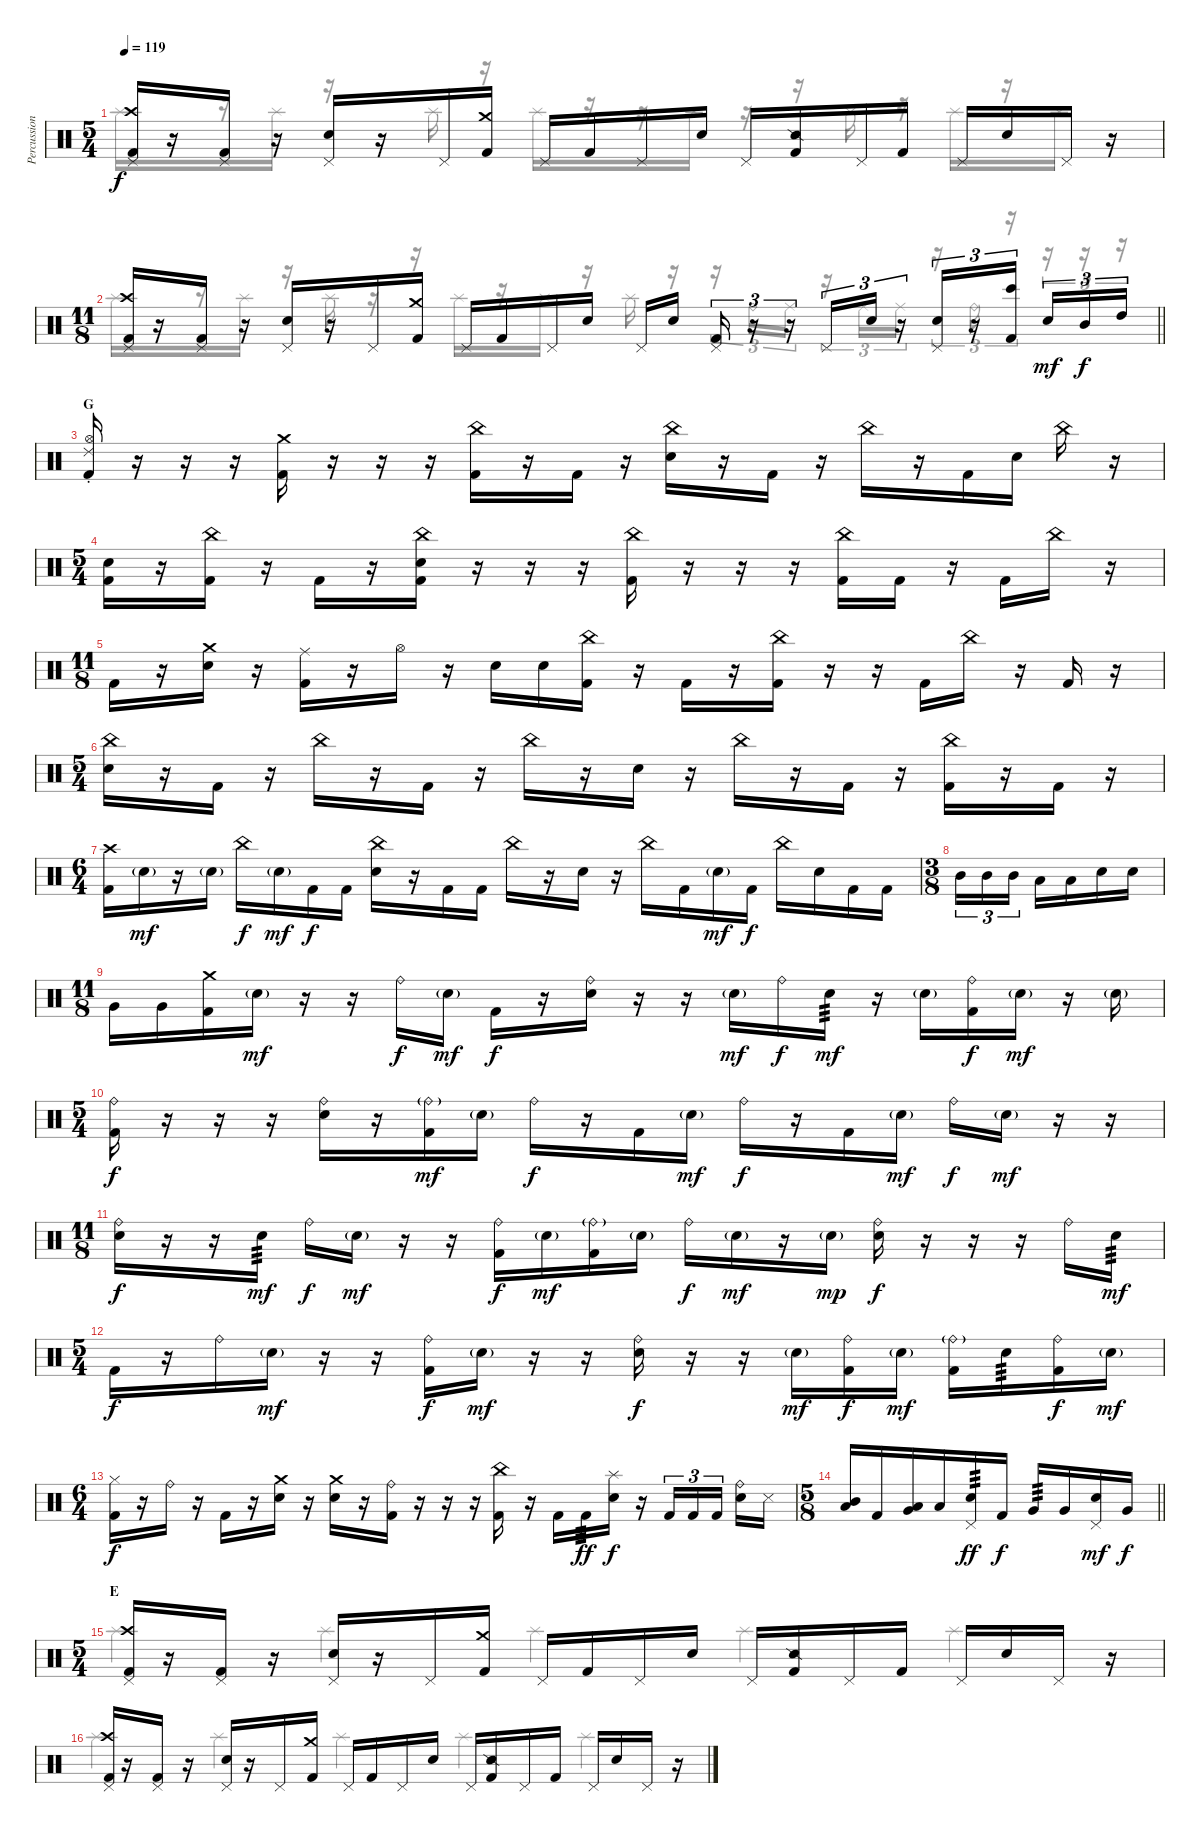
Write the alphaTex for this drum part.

\track ("Percussion" "Percussion") {instrument percussion}
\staff {score}
\articulation defaults
\voice
\ts (5 4)
\tempo 119
\clef neutral
\ks c
("Crash high (hit)" "Pedal Hi-Hat (hit)" "Kick (hit) 2").16{dy f} r.16 ("Pedal Hi-Hat (hit)" "Kick (hit) 2").16 r.16 ("Pedal Hi-Hat (hit)" "Snare (hit) 2").16 r.16 "Pedal Hi-Hat (hit)".16 ("Crash medium (hit)" "Kick (hit) 2").16 "Pedal Hi-Hat (hit)".16 "Kick (hit) 2".16 "Pedal Hi-Hat (hit)".16 "Snare (hit) 2".16 "Pedal Hi-Hat (hit)".16 ("Snare (side stick) 2" "Kick (hit) 2").16 "Pedal Hi-Hat (hit)".16 "Kick (hit) 2".16 "Pedal Hi-Hat (hit)".16 "Snare (hit) 2".16 "Pedal Hi-Hat (hit)".16 r.16 |
\ts (11 8)
\barLineRight lightlight
("Crash high (hit)" "Pedal Hi-Hat (hit)" "Kick (hit) 2").16 r.16 ("Pedal Hi-Hat (hit)" "Kick (hit) 2").16 r.16 ("Pedal Hi-Hat (hit)" "Snare (hit) 2").16 r.16 "Pedal Hi-Hat (hit)".16 ("Crash medium (hit)" "Kick (hit) 2").16 "Pedal Hi-Hat (hit)".16 "Kick (hit) 2".16 "Pedal Hi-Hat (hit)".16 "Snare (hit) 2".16 "Pedal Hi-Hat (hit)".16 "Snare (hit)".16 ("Pedal Hi-Hat (hit)" "Kick (hit) 2").16{tu (3 2)} r.16{tu (3 2)} r.16{tu (3 2)} "Pedal Hi-Hat (hit)".16{tu (3 2)} "Snare (hit) 2".16{tu (3 2)} r.16{tu (3 2)} ("Pedal Hi-Hat (hit)" "Snare (hit) 2").16{tu (3 2)} r.16{tu (3 2)} ("Bongo High (hit)" "Kick (hit) 2").16{tu (3 2)} "Snare (hit) 2".16{tu (3 2) dy mf} "Mid Tom (hit)".16{tu (3 2) dy f} "High Tom (hit)".16{tu (3 2)} |
\section ("" "G")
("Hi-Hat (open)" "Ride (choke) 2" "Kick (hit) 2").16 r.16 r.16 r.16 ("Crash medium (hit)" "Kick (hit) 2").16 r.16 r.16 r.16 ("China (hit)" "Kick (hit) 2").16 r.16 "Kick (hit) 2".16 r.16 ("China (hit)" "Snare (hit) 2").16 r.16 "Kick (hit) 2".16 r.16 "China (hit)".16 r.16 "Kick (hit) 2".16 "Snare (hit) 2".16 "China (hit)".16 r.16 |
\ts (5 4)
("Snare (hit) 2" "Kick (hit) 2").16 r.16 ("China (hit)" "Kick (hit) 2").16 r.16 "Kick (hit) 2".16 r.16 ("China (hit)" "Snare (hit) 2" "Kick (hit) 2").16 r.16 r.16 r.16 ("China (hit)" "Kick (hit) 2").16 r.16 r.16 r.16 ("China (hit)" "Kick (hit) 2").16 "Kick (hit) 2".16 r.16 "Kick (hit) 2".16 "China (hit)".16 r.16 |
\ts (11 8)
"Kick (hit) 2".16 r.16 ("Crash medium (hit)" "Snare (hit) 2").16 r.16 ("Ride (middle)" "Kick (hit) 2").16 r.16 "Hi-Hat (open)".16 r.16 "Snare (hit) 2".16 "Snare (hit) 2".16 ("China (hit)" "Kick (hit) 2").16 r.16 "Kick (hit) 2".16 r.16 ("China (hit)" "Kick (hit) 2").16 r.16 r.16 "Kick (hit) 2".16 "China (hit)".16 r.16 "Kick (hit) 2".16 r.16 |
\ts (5 4)
("China (hit)" "Snare (hit) 2").16 r.16 "Kick (hit) 2".16 r.16 "China (hit)".16 r.16 "Kick (hit) 2".16 r.16 "China (hit)".16 r.16 "Snare (hit) 2".16 r.16 "China (hit)".16 r.16 "Kick (hit) 2".16 r.16 ("China (hit)" "Kick (hit) 2").16 r.16 "Kick (hit) 2".16 r.16 |
\ts (6 4)
("Crash high (hit)" "Kick (hit) 2").16 "Snare (hit) 2"{g}.16{dy mf} r.16 "Snare (hit) 2"{g}.16 "China (hit)".16{dy f} "Snare (hit) 2"{g}.16{dy mf} "Kick (hit) 2".16{dy f} "Kick (hit) 2".16 ("China (hit)" "Snare (hit) 2").16 r.16 "Kick (hit) 2".16 "Kick (hit) 2".16 "China (hit)".16 r.16 "Snare (hit) 2".16 r.16 "China (hit)".16 "Kick (hit) 2".16 "Snare (hit) 2"{g}.16{dy mf} "Kick (hit) 2".16{dy f} "China (hit)".16 "Snare (hit) 2".16 "Kick (hit) 2".16 "Kick (hit) 2".16 |
\ts (3 8)
"Mid Tom (hit)".16{tu (3 2)} "Mid Tom (hit)".16{tu (3 2)} "Mid Tom (hit)".16{tu (3 2)} "Low Tom (hit)".16 "Low Tom (hit)".16 "Snare (hit) 2".16 "Snare (hit) 2".16 |
\ts (11 8)
"Very Low Tom (hit)".16 "Very Low Tom (hit)".16 ("Crash medium (hit)" "Kick (hit) 2").16 "Snare (hit) 2"{g}.16{dy mf} r.16 r.16 "Ride (bell)".16{dy f} "Snare (hit) 2"{g}.16{dy mf} "Kick (hit) 2".16{dy f} r.16 ("Ride (bell)" "Snare (hit) 2").16 r.16 r.16 "Snare (hit) 2"{g}.16{dy mf} "Ride (bell)".16{dy f} "Snare (hit) 2".16{tp 3 dy mf} r.16 "Snare (hit) 2"{g}.16 ("Ride (bell)" "Kick (hit) 2").16{dy f} "Snare (hit) 2"{g}.16{dy mf} r.16 "Snare (hit) 2"{g}.16 |
\ts (5 4)
("Ride (bell)" "Kick (hit) 2").16{dy f} r.16 r.16 r.16 ("Ride (bell)" "Snare (hit) 2").16 r.16 ("Ride (bell)"{g} "Kick (hit) 2").16{dy mf} "Snare (hit) 2"{g}.16 "Ride (bell)".16{dy f} r.16 "Kick (hit) 2".16 "Snare (hit) 2"{g}.16{dy mf} "Ride (bell)".16{dy f} r.16 "Kick (hit) 2".16 "Snare (hit) 2"{g}.16{dy mf} "Ride (bell)".16{dy f} "Snare (hit) 2"{g}.16{dy mf} r.16 r.16 |
\ts (11 8)
("Ride (bell)" "Snare (hit) 2").16{dy f} r.16 r.16 "Snare (hit) 2".16{tp 3 dy mf} "Ride (bell)".16{dy f} "Snare (hit) 2"{g}.16{dy mf} r.16 r.16 ("Ride (bell)" "Kick (hit) 2").16{dy f} "Snare (hit) 2"{g}.16{dy mf} ("Ride (bell)"{g} "Kick (hit) 2").16 "Snare (hit) 2"{g}.16 "Ride (bell)".16{dy f} "Snare (hit) 2"{g}.16{dy mf} r.16 "Snare (hit) 2"{g}.16{dy mp} ("Ride (bell)" "Snare (hit) 2").16{dy f} r.16 r.16 r.16 "Ride (bell)".16 "Snare (hit) 2".16{tp 3 dy mf} |
\ts (5 4)
"Kick (hit) 2".16{dy f} r.16 "Ride (bell)".16 "Snare (hit) 2"{g}.16{dy mf} r.16 r.16 ("Ride (bell)" "Kick (hit) 2").16{dy f} "Snare (hit) 2"{g}.16{dy mf} r.16 r.16 ("Ride (bell)" "Snare (hit) 2").16{dy f} r.16 r.16 "Snare (hit) 2"{g}.16{dy mf} ("Ride (bell)" "Kick (hit) 2").16{dy f} "Snare (hit) 2"{g}.16{dy mf} ("Ride (bell)"{g} "Kick (hit) 2").16 "Snare (hit) 2".16{tp 3} ("Ride (bell)" "Kick (hit) 2").16{dy f} "Snare (hit) 2"{g}.16{dy mf} |
\ts (6 4)
("Hi-Hat (closed)" "Kick (hit) 2").16{dy f} r.16 "Ride (bell)".16 r.16 "Kick (hit) 2".16 r.16 ("Crash medium (hit)" "Snare (hit) 2").16 r.16 ("Crash medium (hit)" "Snare (hit) 2").16 r.16 ("Ride (bell)" "Kick (hit) 2").16 r.16 r.16 r.16 ("China (hit)" "Kick (hit) 2").16 r.16 "Kick (hit) 2".16 "Kick (hit) 2".16{tp 3 dy ff} ("Splash (hit)" "Snare (hit) 2").16{dy f} r.16 "Kick (hit) 2".16{tu (3 2)} "Kick (hit) 2".16{tu (3 2)} "Kick (hit) 2".16{tu (3 2) beam splitsecondary} ("Ride (bell)" "Snare (hit) 2").16 "Metronome (hit)".16 |
\ts (5 8)
\barLineRight lightlight
("Mid Tom (hit)" "Low Tom (hit)").16{bu 60} "Kick (hit) 2".16 ("Low Tom (hit)" "Very Low Tom (hit)").16{bu 60} "Low Tom (hit)".16 ("Pedal Hi-Hat (hit)" "Snare (hit) 2").16{tp 3 dy ff} "Kick (hit) 2".16{dy f} "Very Low Tom (hit)".16{tp 3} "Very Low Tom (hit)".16 ("Pedal Hi-Hat (hit)" "Snare (hit) 2").16{dy mf} "Very Low Tom (hit)".16{dy f} |
\ts (5 4)
\section ("" "E")
("Crash high (hit)" "Pedal Hi-Hat (hit)" "Kick (hit) 2").16 r.16 ("Pedal Hi-Hat (hit)" "Kick (hit) 2").16 r.16 ("Pedal Hi-Hat (hit)" "Snare (hit) 2").16 r.16 "Pedal Hi-Hat (hit)".16 ("Crash medium (hit)" "Kick (hit) 2").16 "Pedal Hi-Hat (hit)".16 "Kick (hit) 2".16 "Pedal Hi-Hat (hit)".16 "Snare (hit) 2".16 "Pedal Hi-Hat (hit)".16 ("Snare (side stick) 2" "Kick (hit) 2").16 "Pedal Hi-Hat (hit)".16 "Kick (hit) 2".16 "Pedal Hi-Hat (hit)".16 "Snare (hit) 2".16 "Pedal Hi-Hat (hit)".16 r.16 |
("Crash high (hit)" "Pedal Hi-Hat (hit)" "Kick (hit) 2").16 r.16 ("Pedal Hi-Hat (hit)" "Kick (hit) 2").16 r.16 ("Pedal Hi-Hat (hit)" "Snare (hit) 2").16 r.16 "Pedal Hi-Hat (hit)".16 ("Crash medium (hit)" "Kick (hit) 2").16 "Pedal Hi-Hat (hit)".16 "Kick (hit) 2".16 "Pedal Hi-Hat (hit)".16 "Snare (hit) 2".16 "Pedal Hi-Hat (hit)".16 ("Snare (side stick) 2" "Kick (hit) 2").16 "Pedal Hi-Hat (hit)".16 "Kick (hit) 2".16 "Pedal Hi-Hat (hit)".16 "Snare (hit) 2".16 "Pedal Hi-Hat (hit)".16 r.16
\voice
\clef neutral
\ottava regular
\simile none
\ks c "Splash (hit)".16{dy f}
r.16 r.16 "Splash (hit)".16 r.16 r.16 "Splash (hit)".16 r.16 "Splash (hit)".16 r.16 r.16 "Splash (hit)".16 r.16 r.16 "Splash (hit)".16 r.16 "Splash (hit)".16 r.16 "Splash (hit)".16 r.16 |
\barLineRight lightlight "Splash (hit)".16
r.16 r.16 "Splash (hit)".16 r.16 "Splash (hit)".16 r.16 r.16 "Splash (hit)".16 r.16 "Splash (hit)".16 r.16 "Splash (hit)".16 r.16 r.16{tu (3 2)} "Ride (bell)".16{tu (3 2)} "Ride (middle)".16{tu (3 2)} r.16{tu (3 2)} "Ride (middle)".16{tu (3 2)} "Ride (middle)".16{tu (3 2)} r.16{tu (3 2)} "Ride (bell)".16{tu (3 2)} r.16{tu (3 2)} r.16{tu (3 2)} r.16{tu (3 2)} r.16{tu (3 2)} |
|
|
|
|
|
|
|
|
|
|
|
\barLineRight lightlight
|
"Splash (hit)".4 "Splash (hit)".4 "Splash (hit)".4 "Splash (hit)".4 "Splash (hit)".4 |
"Splash (hit)".4 "Splash (hit)".4 "Splash (hit)".4 "Splash (hit)".4 "Splash (hit)".4
